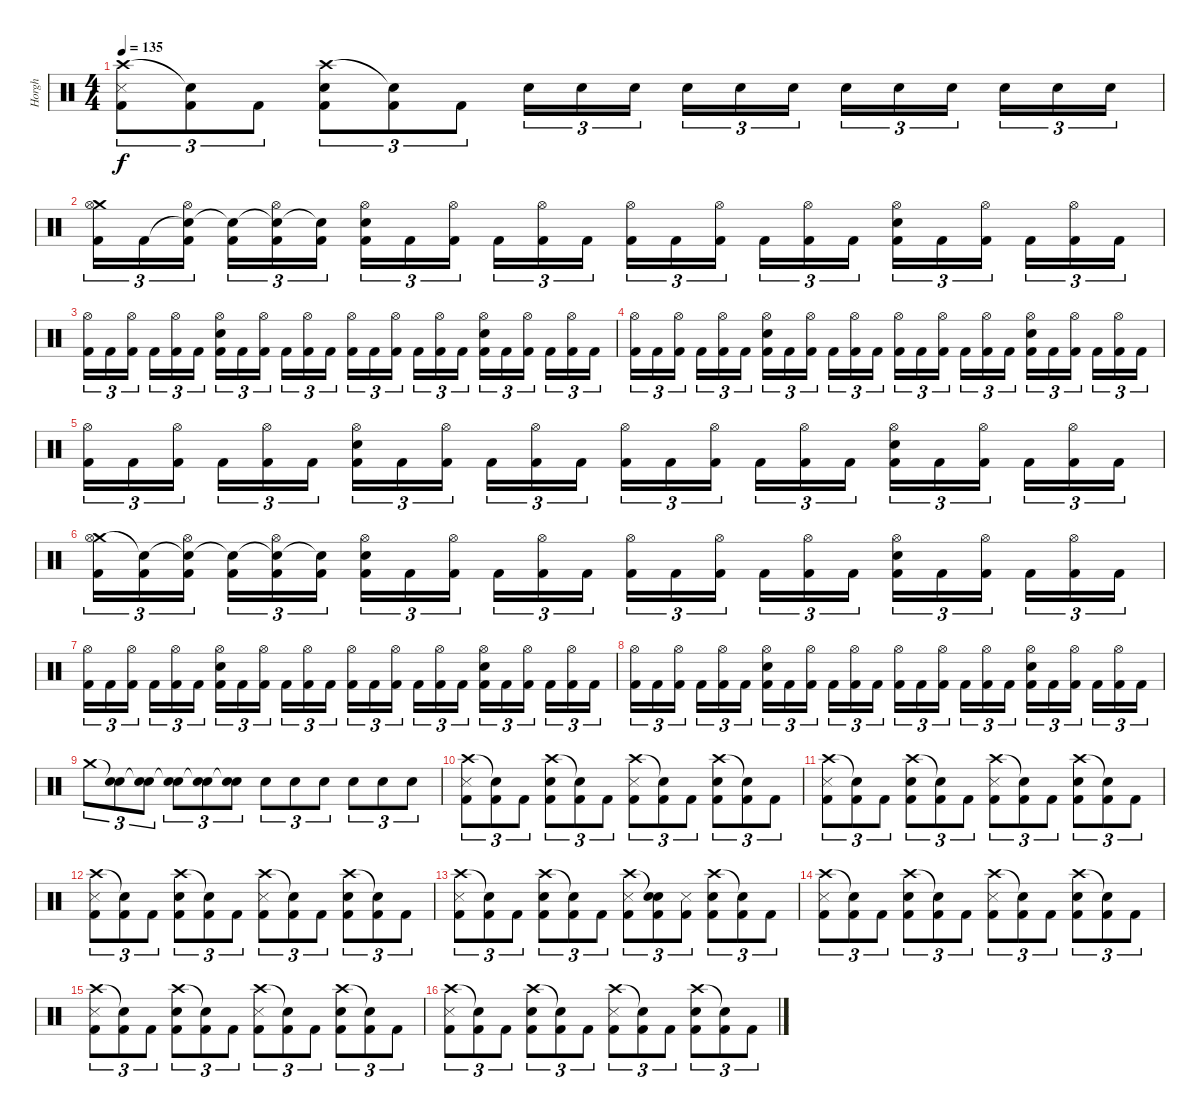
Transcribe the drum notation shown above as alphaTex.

\track ("Horgh" "Horgh") {instrument percussion}
\staff {score}
\articulation defaults
\ts (4 4)
\tempo 135
\clef neutral
\ks c
("Crash high (hit)" "Snare (side stick) 3" "Kick (hit) 2").8{tu (3 2) dy f} ("Snare (hit)"{t} "Kick (hit) 2").8{tu (3 2)} "Kick (hit) 2".8{tu (3 2)} ("Crash high (hit)" "Electric Snare (hit)" "Kick (hit) 2").8{tu (3 2)} ("Snare (hit)"{t} "Kick (hit) 2").8{tu (3 2)} "Kick (hit) 2".8{tu (3 2)} "Electric Snare (hit)".16{tu (3 2)} "Electric Snare (hit)".16{tu (3 2)} "Electric Snare (hit)".16{tu (3 2) beam splitsecondary} "Electric Snare (hit)".16{tu (3 2)} "Electric Snare (hit)".16{tu (3 2)} "Electric Snare (hit)".16{tu (3 2)} "Electric Snare (hit)".16{tu (3 2)} "Electric Snare (hit)".16{tu (3 2)} "Electric Snare (hit)".16{tu (3 2) beam splitsecondary} "Electric Snare (hit)".16{tu (3 2)} "Electric Snare (hit)".16{tu (3 2)} "Electric Snare (hit)".16{tu (3 2)} |
("Crash medium (hit)" "Hi-Hat (open)" "Kick (hit) 2").16{tu (3 2)} "Kick (hit) 2".16{tu (3 2)} ("Snare (hit)"{t} "Hi-Hat (open)" "Kick (hit) 2").16{tu (3 2) beam splitsecondary} ("Snare (hit)"{t} "Kick (hit) 2").16{tu (3 2)} ("Snare (hit)"{t} "Hi-Hat (open)" "Kick (hit) 2").16{tu (3 2)} ("Snare (hit)"{t} "Kick (hit) 2").16{tu (3 2)} ("Hi-Hat (open)" "Electric Snare (hit)" "Kick (hit) 2").16{tu (3 2)} "Kick (hit) 2".16{tu (3 2)} ("Hi-Hat (open)" "Kick (hit) 2").16{tu (3 2) beam splitsecondary} "Kick (hit) 2".16{tu (3 2)} ("Hi-Hat (open)" "Kick (hit) 2").16{tu (3 2)} "Kick (hit) 2".16{tu (3 2)} ("Hi-Hat (open)" "Kick (hit) 2").16{tu (3 2)} "Kick (hit) 2".16{tu (3 2)} ("Hi-Hat (open)" "Kick (hit) 2").16{tu (3 2) beam splitsecondary} "Kick (hit) 2".16{tu (3 2)} ("Hi-Hat (open)" "Kick (hit) 2").16{tu (3 2)} "Kick (hit) 2".16{tu (3 2)} ("Hi-Hat (open)" "Electric Snare (hit)" "Kick (hit) 2").16{tu (3 2)} "Kick (hit) 2".16{tu (3 2)} ("Hi-Hat (open)" "Kick (hit) 2").16{tu (3 2) beam splitsecondary} "Kick (hit) 2".16{tu (3 2)} ("Hi-Hat (open)" "Kick (hit) 2").16{tu (3 2)} "Kick (hit) 2".16{tu (3 2)} |
("Hi-Hat (open)" "Kick (hit) 2").16{tu (3 2)} "Kick (hit) 2".16{tu (3 2)} ("Hi-Hat (open)" "Kick (hit) 2").16{tu (3 2) beam splitsecondary} "Kick (hit) 2".16{tu (3 2)} ("Hi-Hat (open)" "Kick (hit) 2").16{tu (3 2)} "Kick (hit) 2".16{tu (3 2)} ("Hi-Hat (open)" "Electric Snare (hit)" "Kick (hit) 2").16{tu (3 2)} "Kick (hit) 2".16{tu (3 2)} ("Hi-Hat (open)" "Kick (hit) 2").16{tu (3 2) beam splitsecondary} "Kick (hit) 2".16{tu (3 2)} ("Hi-Hat (open)" "Kick (hit) 2").16{tu (3 2)} "Kick (hit) 2".16{tu (3 2)} ("Hi-Hat (open)" "Kick (hit) 2").16{tu (3 2)} "Kick (hit) 2".16{tu (3 2)} ("Hi-Hat (open)" "Kick (hit) 2").16{tu (3 2) beam splitsecondary} "Kick (hit) 2".16{tu (3 2)} ("Hi-Hat (open)" "Kick (hit) 2").16{tu (3 2)} "Kick (hit) 2".16{tu (3 2)} ("Hi-Hat (open)" "Electric Snare (hit)" "Kick (hit) 2").16{tu (3 2)} "Kick (hit) 2".16{tu (3 2)} ("Hi-Hat (open)" "Kick (hit) 2").16{tu (3 2) beam splitsecondary} "Kick (hit) 2".16{tu (3 2)} ("Hi-Hat (open)" "Kick (hit) 2").16{tu (3 2)} "Kick (hit) 2".16{tu (3 2)} |
("Hi-Hat (open)" "Kick (hit) 2").16{tu (3 2)} "Kick (hit) 2".16{tu (3 2)} ("Hi-Hat (open)" "Kick (hit) 2").16{tu (3 2) beam splitsecondary} "Kick (hit) 2".16{tu (3 2)} ("Hi-Hat (open)" "Kick (hit) 2").16{tu (3 2)} "Kick (hit) 2".16{tu (3 2)} ("Hi-Hat (open)" "Electric Snare (hit)" "Kick (hit) 2").16{tu (3 2)} "Kick (hit) 2".16{tu (3 2)} ("Hi-Hat (open)" "Kick (hit) 2").16{tu (3 2) beam splitsecondary} "Kick (hit) 2".16{tu (3 2)} ("Hi-Hat (open)" "Kick (hit) 2").16{tu (3 2)} "Kick (hit) 2".16{tu (3 2)} ("Hi-Hat (open)" "Kick (hit) 2").16{tu (3 2)} "Kick (hit) 2".16{tu (3 2)} ("Hi-Hat (open)" "Kick (hit) 2").16{tu (3 2) beam splitsecondary} "Kick (hit) 2".16{tu (3 2)} ("Hi-Hat (open)" "Kick (hit) 2").16{tu (3 2)} "Kick (hit) 2".16{tu (3 2)} ("Hi-Hat (open)" "Electric Snare (hit)" "Kick (hit) 2").16{tu (3 2)} "Kick (hit) 2".16{tu (3 2)} ("Hi-Hat (open)" "Kick (hit) 2").16{tu (3 2) beam splitsecondary} "Kick (hit) 2".16{tu (3 2)} ("Hi-Hat (open)" "Kick (hit) 2").16{tu (3 2)} "Kick (hit) 2".16{tu (3 2)} |
("Hi-Hat (open)" "Kick (hit) 2").16{tu (3 2)} "Kick (hit) 2".16{tu (3 2)} ("Hi-Hat (open)" "Kick (hit) 2").16{tu (3 2) beam splitsecondary} "Kick (hit) 2".16{tu (3 2)} ("Hi-Hat (open)" "Kick (hit) 2").16{tu (3 2)} "Kick (hit) 2".16{tu (3 2)} ("Hi-Hat (open)" "Electric Snare (hit)" "Kick (hit) 2").16{tu (3 2)} "Kick (hit) 2".16{tu (3 2)} ("Hi-Hat (open)" "Kick (hit) 2").16{tu (3 2) beam splitsecondary} "Kick (hit) 2".16{tu (3 2)} ("Hi-Hat (open)" "Kick (hit) 2").16{tu (3 2)} "Kick (hit) 2".16{tu (3 2)} ("Hi-Hat (open)" "Kick (hit) 2").16{tu (3 2)} "Kick (hit) 2".16{tu (3 2)} ("Hi-Hat (open)" "Kick (hit) 2").16{tu (3 2) beam splitsecondary} "Kick (hit) 2".16{tu (3 2)} ("Hi-Hat (open)" "Kick (hit) 2").16{tu (3 2)} "Kick (hit) 2".16{tu (3 2)} ("Hi-Hat (open)" "Electric Snare (hit)" "Kick (hit) 2").16{tu (3 2)} "Kick (hit) 2".16{tu (3 2)} ("Hi-Hat (open)" "Kick (hit) 2").16{tu (3 2) beam splitsecondary} "Kick (hit) 2".16{tu (3 2)} ("Hi-Hat (open)" "Kick (hit) 2").16{tu (3 2)} "Kick (hit) 2".16{tu (3 2)} |
("Crash medium (hit)" "Hi-Hat (open)" "Kick (hit) 2").16{tu (3 2)} ("Snare (hit)"{t} "Kick (hit) 2").16{tu (3 2)} ("Snare (hit)"{t} "Hi-Hat (open)" "Kick (hit) 2").16{tu (3 2) beam splitsecondary} ("Snare (hit)"{t} "Kick (hit) 2").16{tu (3 2)} ("Snare (hit)"{t} "Hi-Hat (open)" "Kick (hit) 2").16{tu (3 2)} ("Snare (hit)"{t} "Kick (hit) 2").16{tu (3 2)} ("Hi-Hat (open)" "Electric Snare (hit)" "Kick (hit) 2").16{tu (3 2)} "Kick (hit) 2".16{tu (3 2)} ("Hi-Hat (open)" "Kick (hit) 2").16{tu (3 2) beam splitsecondary} "Kick (hit) 2".16{tu (3 2)} ("Hi-Hat (open)" "Kick (hit) 2").16{tu (3 2)} "Kick (hit) 2".16{tu (3 2)} ("Hi-Hat (open)" "Kick (hit) 2").16{tu (3 2)} "Kick (hit) 2".16{tu (3 2)} ("Hi-Hat (open)" "Kick (hit) 2").16{tu (3 2) beam splitsecondary} "Kick (hit) 2".16{tu (3 2)} ("Hi-Hat (open)" "Kick (hit) 2").16{tu (3 2)} "Kick (hit) 2".16{tu (3 2)} ("Hi-Hat (open)" "Electric Snare (hit)" "Kick (hit) 2").16{tu (3 2)} "Kick (hit) 2".16{tu (3 2)} ("Hi-Hat (open)" "Kick (hit) 2").16{tu (3 2) beam splitsecondary} "Kick (hit) 2".16{tu (3 2)} ("Hi-Hat (open)" "Kick (hit) 2").16{tu (3 2)} "Kick (hit) 2".16{tu (3 2)} |
("Hi-Hat (open)" "Kick (hit) 2").16{tu (3 2)} "Kick (hit) 2".16{tu (3 2)} ("Hi-Hat (open)" "Kick (hit) 2").16{tu (3 2) beam splitsecondary} "Kick (hit) 2".16{tu (3 2)} ("Hi-Hat (open)" "Kick (hit) 2").16{tu (3 2)} "Kick (hit) 2".16{tu (3 2)} ("Hi-Hat (open)" "Electric Snare (hit)" "Kick (hit) 2").16{tu (3 2)} "Kick (hit) 2".16{tu (3 2)} ("Hi-Hat (open)" "Kick (hit) 2").16{tu (3 2) beam splitsecondary} "Kick (hit) 2".16{tu (3 2)} ("Hi-Hat (open)" "Kick (hit) 2").16{tu (3 2)} "Kick (hit) 2".16{tu (3 2)} ("Hi-Hat (open)" "Kick (hit) 2").16{tu (3 2)} "Kick (hit) 2".16{tu (3 2)} ("Hi-Hat (open)" "Kick (hit) 2").16{tu (3 2) beam splitsecondary} "Kick (hit) 2".16{tu (3 2)} ("Hi-Hat (open)" "Kick (hit) 2").16{tu (3 2)} "Kick (hit) 2".16{tu (3 2)} ("Hi-Hat (open)" "Electric Snare (hit)" "Kick (hit) 2").16{tu (3 2)} "Kick (hit) 2".16{tu (3 2)} ("Hi-Hat (open)" "Kick (hit) 2").16{tu (3 2) beam splitsecondary} "Kick (hit) 2".16{tu (3 2)} ("Hi-Hat (open)" "Kick (hit) 2").16{tu (3 2)} "Kick (hit) 2".16{tu (3 2)} |
("Hi-Hat (open)" "Kick (hit) 2").16{tu (3 2)} "Kick (hit) 2".16{tu (3 2)} ("Hi-Hat (open)" "Kick (hit) 2").16{tu (3 2) beam splitsecondary} "Kick (hit) 2".16{tu (3 2)} ("Hi-Hat (open)" "Kick (hit) 2").16{tu (3 2)} "Kick (hit) 2".16{tu (3 2)} ("Hi-Hat (open)" "Electric Snare (hit)" "Kick (hit) 2").16{tu (3 2)} "Kick (hit) 2".16{tu (3 2)} ("Hi-Hat (open)" "Kick (hit) 2").16{tu (3 2) beam splitsecondary} "Kick (hit) 2".16{tu (3 2)} ("Hi-Hat (open)" "Kick (hit) 2").16{tu (3 2)} "Kick (hit) 2".16{tu (3 2)} ("Hi-Hat (open)" "Kick (hit) 2").16{tu (3 2)} "Kick (hit) 2".16{tu (3 2)} ("Hi-Hat (open)" "Kick (hit) 2").16{tu (3 2) beam splitsecondary} "Kick (hit) 2".16{tu (3 2)} ("Hi-Hat (open)" "Kick (hit) 2").16{tu (3 2)} "Kick (hit) 2".16{tu (3 2)} ("Hi-Hat (open)" "Electric Snare (hit)" "Kick (hit) 2").16{tu (3 2)} "Kick (hit) 2".16{tu (3 2)} ("Hi-Hat (open)" "Kick (hit) 2").16{tu (3 2) beam splitsecondary} "Kick (hit) 2".16{tu (3 2)} ("Hi-Hat (open)" "Kick (hit) 2").16{tu (3 2)} "Kick (hit) 2".16{tu (3 2)} |
"Crash medium (hit)".8{tu (3 2)} ("Snare (hit)"{t} "Electric Snare (hit)").8{tu (3 2)} ("Snare (hit)"{t} "Electric Snare (hit)").8{tu (3 2)} ("Snare (hit)"{t} "Electric Snare (hit)").8{tu (3 2)} ("Snare (hit)"{t} "Electric Snare (hit)").8{tu (3 2)} ("Snare (hit)"{t} "Electric Snare (hit)").8{tu (3 2)} "Electric Snare (hit)".8{tu (3 2)} "Electric Snare (hit)".8{tu (3 2)} "Electric Snare (hit)".8{tu (3 2)} "Electric Snare (hit)".8{tu (3 2)} "Electric Snare (hit)".8{tu (3 2)} "Electric Snare (hit)".8{tu (3 2)} |
("Crash high (hit)" "Snare (side stick) 3" "Kick (hit) 2").8{tu (3 2)} ("Snare (hit)"{t} "Kick (hit) 2").8{tu (3 2)} "Kick (hit) 2".8{tu (3 2)} ("Crash high (hit)" "Electric Snare (hit)" "Kick (hit) 2").8{tu (3 2)} ("Snare (hit)"{t} "Kick (hit) 2").8{tu (3 2)} "Kick (hit) 2".8{tu (3 2)} ("Crash high (hit)" "Snare (side stick) 3" "Kick (hit) 2").8{tu (3 2)} ("Snare (hit)"{t} "Kick (hit) 2").8{tu (3 2)} "Kick (hit) 2".8{tu (3 2)} ("Crash high (hit)" "Electric Snare (hit)" "Kick (hit) 2").8{tu (3 2)} ("Snare (hit)"{t} "Kick (hit) 2").8{tu (3 2)} "Kick (hit) 2".8{tu (3 2)} |
("Crash high (hit)" "Snare (side stick) 3" "Kick (hit) 2").8{tu (3 2)} ("Snare (hit)"{t} "Kick (hit) 2").8{tu (3 2)} "Kick (hit) 2".8{tu (3 2)} ("Crash high (hit)" "Electric Snare (hit)" "Kick (hit) 2").8{tu (3 2)} ("Snare (hit)"{t} "Kick (hit) 2").8{tu (3 2)} "Kick (hit) 2".8{tu (3 2)} ("Crash high (hit)" "Snare (side stick) 3" "Kick (hit) 2").8{tu (3 2)} ("Snare (hit)"{t} "Kick (hit) 2").8{tu (3 2)} "Kick (hit) 2".8{tu (3 2)} ("Crash high (hit)" "Electric Snare (hit)" "Kick (hit) 2").8{tu (3 2)} ("Snare (hit)"{t} "Kick (hit) 2").8{tu (3 2)} "Kick (hit) 2".8{tu (3 2)} |
("Crash high (hit)" "Snare (side stick) 3" "Kick (hit) 2").8{tu (3 2)} ("Snare (hit)"{t} "Kick (hit) 2").8{tu (3 2)} "Kick (hit) 2".8{tu (3 2)} ("Crash high (hit)" "Electric Snare (hit)" "Kick (hit) 2").8{tu (3 2)} ("Snare (hit)"{t} "Kick (hit) 2").8{tu (3 2)} "Kick (hit) 2".8{tu (3 2)} ("Crash high (hit)" "Snare (side stick) 3" "Kick (hit) 2").8{tu (3 2)} ("Snare (hit)"{t} "Kick (hit) 2").8{tu (3 2)} "Kick (hit) 2".8{tu (3 2)} ("Crash high (hit)" "Electric Snare (hit)" "Kick (hit) 2").8{tu (3 2)} ("Snare (hit)"{t} "Kick (hit) 2").8{tu (3 2)} "Kick (hit) 2".8{tu (3 2)} |
("Crash high (hit)" "Snare (side stick) 3" "Kick (hit) 2").8{tu (3 2)} ("Snare (hit)"{t} "Kick (hit) 2").8{tu (3 2)} "Kick (hit) 2".8{tu (3 2)} ("Crash high (hit)" "Electric Snare (hit)" "Kick (hit) 2").8{tu (3 2)} ("Snare (hit)"{t} "Kick (hit) 2").8{tu (3 2)} "Kick (hit) 2".8{tu (3 2)} ("Crash high (hit)" "Snare (side stick) 3" "Kick (hit) 2").8{tu (3 2)} ("Snare (hit)"{t} "Electric Snare (hit)" "Kick (hit) 2").8{tu (3 2)} ("Snare (side stick) 3" "Kick (hit) 2").8{tu (3 2)} ("Crash high (hit)" "Electric Snare (hit)" "Kick (hit) 2").8{tu (3 2)} ("Snare (hit)"{t} "Kick (hit) 2").8{tu (3 2)} "Kick (hit) 2".8{tu (3 2)} |
("Crash high (hit)" "Snare (side stick) 3" "Kick (hit) 2").8{tu (3 2)} ("Snare (hit)"{t} "Kick (hit) 2").8{tu (3 2)} "Kick (hit) 2".8{tu (3 2)} ("Crash high (hit)" "Electric Snare (hit)" "Kick (hit) 2").8{tu (3 2)} ("Snare (hit)"{t} "Kick (hit) 2").8{tu (3 2)} "Kick (hit) 2".8{tu (3 2)} ("Crash high (hit)" "Snare (side stick) 3" "Kick (hit) 2").8{tu (3 2)} ("Snare (hit)"{t} "Kick (hit) 2").8{tu (3 2)} "Kick (hit) 2".8{tu (3 2)} ("Crash high (hit)" "Electric Snare (hit)" "Kick (hit) 2").8{tu (3 2)} ("Snare (hit)"{t} "Kick (hit) 2").8{tu (3 2)} "Kick (hit) 2".8{tu (3 2)} |
("Crash high (hit)" "Snare (side stick) 3" "Kick (hit) 2").8{tu (3 2)} ("Snare (hit)"{t} "Kick (hit) 2").8{tu (3 2)} "Kick (hit) 2".8{tu (3 2)} ("Crash high (hit)" "Electric Snare (hit)" "Kick (hit) 2").8{tu (3 2)} ("Snare (hit)"{t} "Kick (hit) 2").8{tu (3 2)} "Kick (hit) 2".8{tu (3 2)} ("Crash high (hit)" "Snare (side stick) 3" "Kick (hit) 2").8{tu (3 2)} ("Snare (hit)"{t} "Kick (hit) 2").8{tu (3 2)} "Kick (hit) 2".8{tu (3 2)} ("Crash high (hit)" "Electric Snare (hit)" "Kick (hit) 2").8{tu (3 2)} ("Snare (hit)"{t} "Kick (hit) 2").8{tu (3 2)} "Kick (hit) 2".8{tu (3 2)} |
("Crash high (hit)" "Snare (side stick) 3" "Kick (hit) 2").8{tu (3 2)} ("Snare (hit)"{t} "Kick (hit) 2").8{tu (3 2)} "Kick (hit) 2".8{tu (3 2)} ("Crash high (hit)" "Electric Snare (hit)" "Kick (hit) 2").8{tu (3 2)} ("Snare (hit)"{t} "Kick (hit) 2").8{tu (3 2)} "Kick (hit) 2".8{tu (3 2)} ("Crash high (hit)" "Snare (side stick) 3" "Kick (hit) 2").8{tu (3 2)} ("Snare (hit)"{t} "Kick (hit) 2").8{tu (3 2)} "Kick (hit) 2".8{tu (3 2)} ("Crash high (hit)" "Electric Snare (hit)" "Kick (hit) 2").8{tu (3 2)} ("Snare (hit)"{t} "Kick (hit) 2").8{tu (3 2)} "Kick (hit) 2".8{tu (3 2)}
